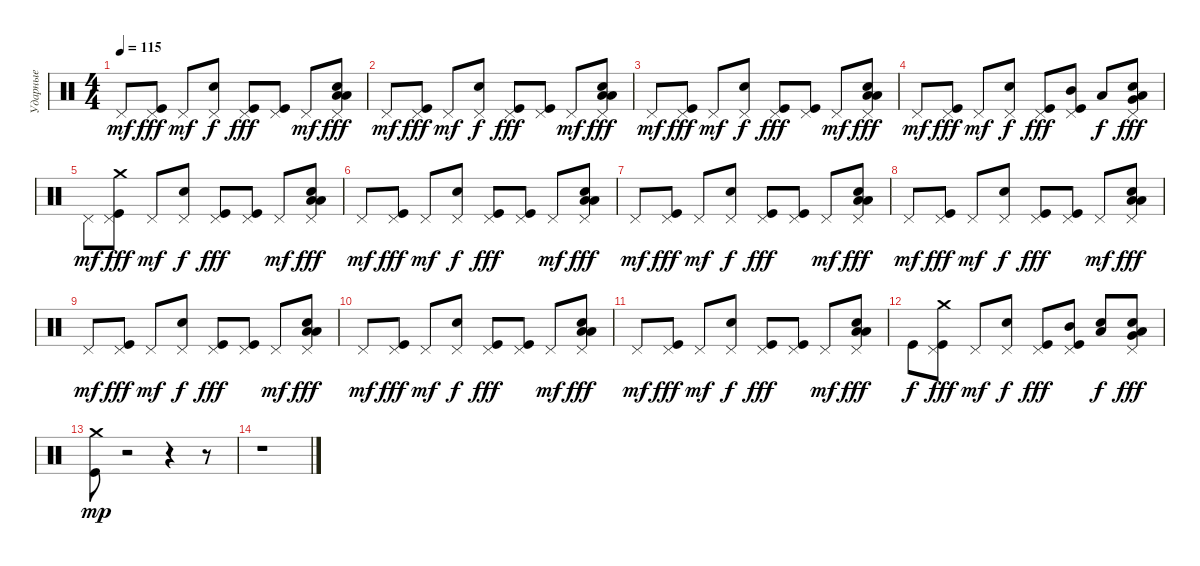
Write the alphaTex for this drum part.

\track ("Ударные" "Ударные") {instrument percussion}
\staff {score}
\articulation defaults
\ts (4 4)
\tempo 115
\clef neutral
\ks c "Pedal Hi-Hat (hit)".8{dy mf}
("Pedal Hi-Hat (hit)" "Kick (hit)").8{dy fff} "Pedal Hi-Hat (hit)".8{dy mf} ("Pedal Hi-Hat (hit)" "Electric Snare (hit)").8{dy f} ("Pedal Hi-Hat (hit)" "Kick (hit)").8{dy fff} ("Pedal Hi-Hat (hit)" "Kick (hit)").8 "Pedal Hi-Hat (hit)".8{dy mf} ("Pedal Hi-Hat (hit)" "Low Tom (hit)" "Low Tom (hit)" "Electric Snare (hit)").8{dy fff} |
"Pedal Hi-Hat (hit)".8{dy mf} ("Pedal Hi-Hat (hit)" "Kick (hit)").8{dy fff} "Pedal Hi-Hat (hit)".8{dy mf} ("Pedal Hi-Hat (hit)" "Electric Snare (hit)").8{dy f} ("Pedal Hi-Hat (hit)" "Kick (hit)").8{dy fff} ("Pedal Hi-Hat (hit)" "Kick (hit)").8 "Pedal Hi-Hat (hit)".8{dy mf} ("Pedal Hi-Hat (hit)" "Low Tom (hit)" "Low Tom (hit)" "Electric Snare (hit)").8{dy fff} |
"Pedal Hi-Hat (hit)".8{dy mf} ("Pedal Hi-Hat (hit)" "Kick (hit)").8{dy fff} "Pedal Hi-Hat (hit)".8{dy mf} ("Pedal Hi-Hat (hit)" "Electric Snare (hit)").8{dy f} ("Pedal Hi-Hat (hit)" "Kick (hit)").8{dy fff} ("Pedal Hi-Hat (hit)" "Kick (hit)").8 "Pedal Hi-Hat (hit)".8{dy mf} ("Pedal Hi-Hat (hit)" "Low Tom (hit)" "Low Tom (hit)" "Electric Snare (hit)").8{dy fff} |
"Pedal Hi-Hat (hit)".8{dy mf} ("Pedal Hi-Hat (hit)" "Kick (hit)").8{dy fff} "Pedal Hi-Hat (hit)".8{dy mf} ("Pedal Hi-Hat (hit)" "Electric Snare (hit)").8{dy f} ("Pedal Hi-Hat (hit)" "Kick (hit)").8{dy fff} ("Pedal Hi-Hat (hit)" "Kick (hit)" "Mid Tom (hit)").8 "Low Tom (hit)".8{dy f} ("Pedal Hi-Hat (hit)" "Very Low Tom (hit)" "Low Tom (hit)" "Electric Snare (hit)").8{dy fff} |
"Pedal Hi-Hat (hit)".8{dy mf} ("Pedal Hi-Hat (hit)" "Kick (hit)" "Crash medium (hit)").8{dy fff} "Pedal Hi-Hat (hit)".8{dy mf} ("Pedal Hi-Hat (hit)" "Electric Snare (hit)").8{dy f} ("Pedal Hi-Hat (hit)" "Kick (hit)").8{dy fff} ("Pedal Hi-Hat (hit)" "Kick (hit)").8 "Pedal Hi-Hat (hit)".8{dy mf} ("Pedal Hi-Hat (hit)" "Low Tom (hit)" "Low Tom (hit)" "Electric Snare (hit)").8{dy fff} |
"Pedal Hi-Hat (hit)".8{dy mf} ("Pedal Hi-Hat (hit)" "Kick (hit)").8{dy fff} "Pedal Hi-Hat (hit)".8{dy mf} ("Pedal Hi-Hat (hit)" "Electric Snare (hit)").8{dy f} ("Pedal Hi-Hat (hit)" "Kick (hit)").8{dy fff} ("Pedal Hi-Hat (hit)" "Kick (hit)").8 "Pedal Hi-Hat (hit)".8{dy mf} ("Pedal Hi-Hat (hit)" "Low Tom (hit)" "Low Tom (hit)" "Electric Snare (hit)").8{dy fff} |
"Pedal Hi-Hat (hit)".8{dy mf} ("Pedal Hi-Hat (hit)" "Kick (hit)").8{dy fff} "Pedal Hi-Hat (hit)".8{dy mf} ("Pedal Hi-Hat (hit)" "Electric Snare (hit)").8{dy f} ("Pedal Hi-Hat (hit)" "Kick (hit)").8{dy fff} ("Pedal Hi-Hat (hit)" "Kick (hit)").8 "Pedal Hi-Hat (hit)".8{dy mf} ("Pedal Hi-Hat (hit)" "Low Tom (hit)" "Low Tom (hit)" "Electric Snare (hit)").8{dy fff} |
"Pedal Hi-Hat (hit)".8{dy mf} ("Pedal Hi-Hat (hit)" "Kick (hit)").8{dy fff} "Pedal Hi-Hat (hit)".8{dy mf} ("Pedal Hi-Hat (hit)" "Electric Snare (hit)").8{dy f} ("Pedal Hi-Hat (hit)" "Kick (hit)").8{dy fff} ("Pedal Hi-Hat (hit)" "Kick (hit)").8 "Pedal Hi-Hat (hit)".8{dy mf} ("Pedal Hi-Hat (hit)" "Low Tom (hit)" "Low Tom (hit)" "Electric Snare (hit)").8{dy fff} |
"Pedal Hi-Hat (hit)".8{dy mf} ("Pedal Hi-Hat (hit)" "Kick (hit)").8{dy fff} "Pedal Hi-Hat (hit)".8{dy mf} ("Pedal Hi-Hat (hit)" "Electric Snare (hit)").8{dy f} ("Pedal Hi-Hat (hit)" "Kick (hit)").8{dy fff} ("Pedal Hi-Hat (hit)" "Kick (hit)").8 "Pedal Hi-Hat (hit)".8{dy mf} ("Pedal Hi-Hat (hit)" "Low Tom (hit)" "Low Tom (hit)" "Electric Snare (hit)").8{dy fff} |
"Pedal Hi-Hat (hit)".8{dy mf} ("Pedal Hi-Hat (hit)" "Kick (hit)").8{dy fff} "Pedal Hi-Hat (hit)".8{dy mf} ("Pedal Hi-Hat (hit)" "Electric Snare (hit)").8{dy f} ("Pedal Hi-Hat (hit)" "Kick (hit)").8{dy fff} ("Pedal Hi-Hat (hit)" "Kick (hit)").8 "Pedal Hi-Hat (hit)".8{dy mf} ("Pedal Hi-Hat (hit)" "Low Tom (hit)" "Low Tom (hit)" "Electric Snare (hit)").8{dy fff} |
"Pedal Hi-Hat (hit)".8{dy mf} ("Pedal Hi-Hat (hit)" "Kick (hit)").8{dy fff} "Pedal Hi-Hat (hit)".8{dy mf} ("Pedal Hi-Hat (hit)" "Electric Snare (hit)").8{dy f} ("Pedal Hi-Hat (hit)" "Kick (hit)").8{dy fff} ("Pedal Hi-Hat (hit)" "Kick (hit)").8 "Pedal Hi-Hat (hit)".8{dy mf} ("Pedal Hi-Hat (hit)" "Low Tom (hit)" "Low Tom (hit)" "Electric Snare (hit)").8{dy fff} |
"Kick (hit)".8{dy f} ("Pedal Hi-Hat (hit)" "Kick (hit)" "Crash medium (hit)").8{dy fff} "Pedal Hi-Hat (hit)".8{dy mf} ("Pedal Hi-Hat (hit)" "Electric Snare (hit)").8{dy f} ("Pedal Hi-Hat (hit)" "Kick (hit)").8{dy fff} ("Pedal Hi-Hat (hit)" "Kick (hit)" "Mid Tom (hit)").8 ("Low Tom (hit)" "Electric Snare (hit)").8{dy f} ("Pedal Hi-Hat (hit)" "Very Low Tom (hit)" "Low Tom (hit)" "Electric Snare (hit)").8{dy fff} |
("Kick (hit)" "Crash medium (hit)").8{dy mp} r.2 r.4 r.8 |
r.1
